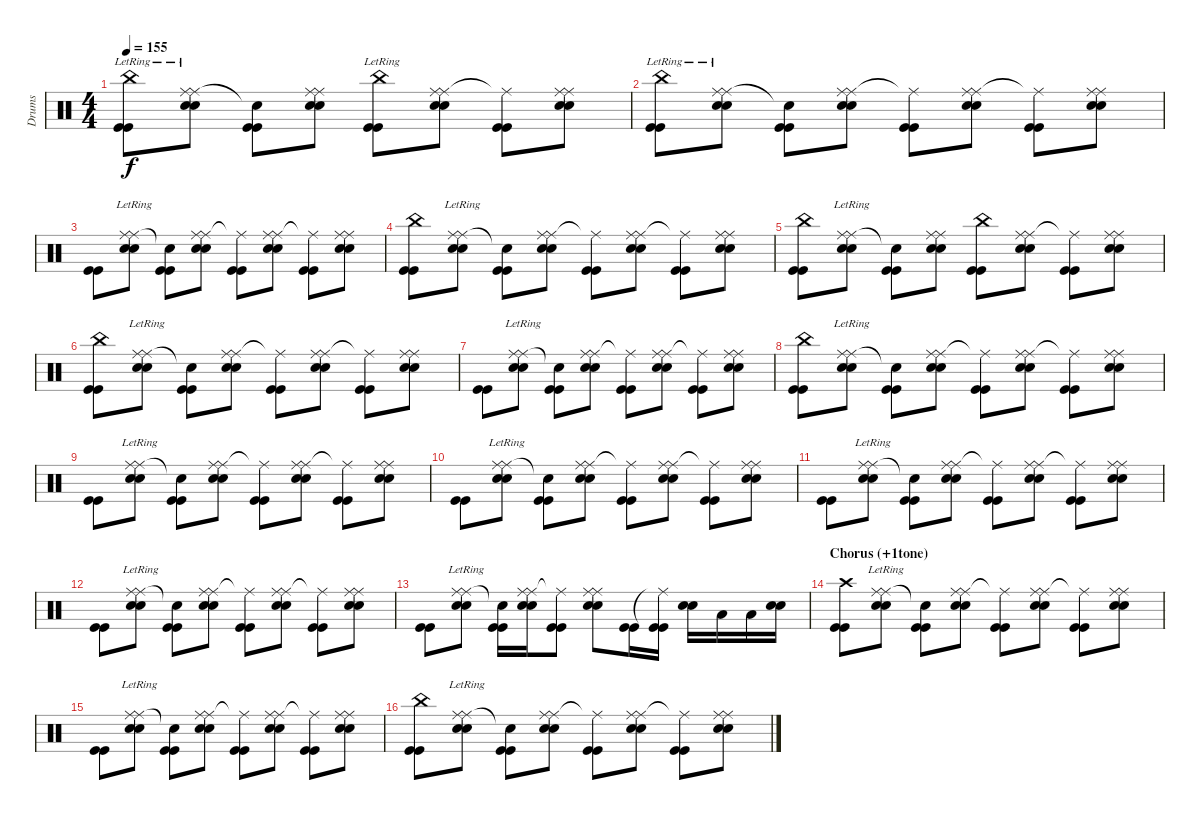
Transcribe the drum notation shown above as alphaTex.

\track ("Drums" "Drums") {instrument percussion}
\staff {score}
\articulation defaults
\ts (4 4)
\tempo 155
\clef neutral
\ks c
("China (hit)"{lr} "Kick (hit)" "Kick (hit)").8{dy f} ("Ride (middle)"{lr} "Snare (hit) 2" "Snare (hit) 2" "Ride (middle)").8 ("Snare (hit)"{t} "Kick (hit)" "Kick (hit)").8 ("Ride (middle)" "Snare (hit) 2" "Snare (hit) 2" "Ride (middle)").8 ("China (hit)"{lr} "Kick (hit)" "Kick (hit)").8 ("Ride (middle)" "Snare (hit) 2" "Snare (hit) 2" "Ride (middle)").8 ("Ride (middle)"{t} "Kick (hit)" "Kick (hit)").8 ("Ride (middle)" "Snare (hit) 2" "Snare (hit) 2" "Ride (middle)").8 |
("China (hit)"{lr} "Kick (hit)" "Kick (hit)").8 ("Ride (middle)"{lr} "Snare (hit) 2" "Snare (hit) 2" "Ride (middle)").8 ("Snare (hit)"{t} "Kick (hit)" "Kick (hit)").8 ("Ride (middle)" "Snare (hit) 2" "Snare (hit) 2" "Ride (middle)").8 ("Ride (middle)"{t} "Kick (hit)" "Kick (hit)").8 ("Ride (middle)" "Snare (hit) 2" "Snare (hit) 2" "Ride (middle)").8 ("Ride (middle)"{t} "Kick (hit)" "Kick (hit)").8 ("Ride (middle)" "Snare (hit) 2" "Snare (hit) 2" "Ride (middle)").8 |
("Kick (hit)" "Kick (hit)").8 ("Ride (middle)"{lr} "Snare (hit) 2" "Snare (hit) 2" "Ride (middle)").8 ("Snare (hit)"{t} "Kick (hit)" "Kick (hit)").8 ("Ride (middle)" "Snare (hit) 2" "Snare (hit) 2" "Ride (middle)").8 ("Ride (middle)"{t} "Kick (hit)" "Kick (hit)").8 ("Ride (middle)" "Snare (hit) 2" "Snare (hit) 2" "Ride (middle)").8 ("Ride (middle)"{t} "Kick (hit)" "Kick (hit)").8 ("Ride (middle)" "Snare (hit) 2" "Snare (hit) 2" "Ride (middle)").8 |
("China (hit)" "Kick (hit)" "Kick (hit)").8 ("Ride (middle)"{lr} "Snare (hit) 2" "Snare (hit) 2" "Ride (middle)").8 ("Snare (hit)"{t} "Kick (hit)" "Kick (hit)").8 ("Ride (middle)" "Snare (hit) 2" "Snare (hit) 2" "Ride (middle)").8 ("Ride (middle)"{t} "Kick (hit)" "Kick (hit)").8 ("Ride (middle)" "Snare (hit) 2" "Snare (hit) 2" "Ride (middle)").8 ("Ride (middle)"{t} "Kick (hit)" "Kick (hit)").8 ("Ride (middle)" "Snare (hit) 2" "Snare (hit) 2" "Ride (middle)").8 |
("China (hit)" "Kick (hit)" "Kick (hit)").8 ("Ride (middle)"{lr} "Snare (hit) 2" "Snare (hit) 2" "Ride (middle)").8 ("Snare (hit)"{t} "Kick (hit)" "Kick (hit)").8 ("Ride (middle)" "Snare (hit) 2" "Snare (hit) 2" "Ride (middle)").8 ("China (hit)" "Kick (hit)" "Kick (hit)").8 ("Ride (middle)" "Snare (hit) 2" "Snare (hit) 2" "Ride (middle)").8 ("Ride (middle)"{t} "Kick (hit)" "Kick (hit)").8 ("Ride (middle)" "Snare (hit) 2" "Snare (hit) 2" "Ride (middle)").8 |
("China (hit)" "Kick (hit)" "Kick (hit)").8 ("Ride (middle)"{lr} "Snare (hit) 2" "Snare (hit) 2" "Ride (middle)").8 ("Snare (hit)"{t} "Kick (hit)" "Kick (hit)").8 ("Ride (middle)" "Snare (hit) 2" "Snare (hit) 2" "Ride (middle)").8 ("Ride (middle)"{t} "Kick (hit)" "Kick (hit)").8 ("Ride (middle)" "Snare (hit) 2" "Snare (hit) 2" "Ride (middle)").8 ("Ride (middle)"{t} "Kick (hit)" "Kick (hit)").8 ("Ride (middle)" "Snare (hit) 2" "Snare (hit) 2" "Ride (middle)").8 |
("Kick (hit)" "Kick (hit)").8 ("Ride (middle)"{lr} "Snare (hit) 2" "Snare (hit) 2" "Ride (middle)").8 ("Snare (hit)"{t} "Kick (hit)" "Kick (hit)").8 ("Ride (middle)" "Snare (hit) 2" "Snare (hit) 2" "Ride (middle)").8 ("Ride (middle)"{t} "Kick (hit)" "Kick (hit)").8 ("Ride (middle)" "Snare (hit) 2" "Snare (hit) 2" "Ride (middle)").8 ("Ride (middle)"{t} "Kick (hit)" "Kick (hit)").8 ("Ride (middle)" "Snare (hit) 2" "Snare (hit) 2" "Ride (middle)").8 |
("China (hit)" "Kick (hit)" "Kick (hit)").8 ("Ride (middle)"{lr} "Snare (hit) 2" "Snare (hit) 2" "Ride (middle)").8 ("Snare (hit)"{t} "Kick (hit)" "Kick (hit)").8 ("Ride (middle)" "Snare (hit) 2" "Snare (hit) 2" "Ride (middle)").8 ("Ride (middle)"{t} "Kick (hit)" "Kick (hit)").8 ("Ride (middle)" "Snare (hit) 2" "Snare (hit) 2" "Ride (middle)").8 ("Ride (middle)"{t} "Kick (hit)" "Kick (hit)").8 ("Ride (middle)" "Snare (hit) 2" "Snare (hit) 2" "Ride (middle)").8 |
("Kick (hit)" "Kick (hit)").8 ("Ride (middle)"{lr} "Snare (hit) 2" "Snare (hit) 2" "Ride (middle)").8 ("Snare (hit)"{t} "Kick (hit)" "Kick (hit)").8 ("Ride (middle)" "Snare (hit) 2" "Snare (hit) 2" "Ride (middle)").8 ("Ride (middle)"{t} "Kick (hit)" "Kick (hit)").8 ("Ride (middle)" "Snare (hit) 2" "Snare (hit) 2" "Ride (middle)").8 ("Ride (middle)"{t} "Kick (hit)" "Kick (hit)").8 ("Ride (middle)" "Snare (hit) 2" "Snare (hit) 2" "Ride (middle)").8 |
("Kick (hit)" "Kick (hit)").8 ("Ride (middle)"{lr} "Snare (hit) 2" "Snare (hit) 2" "Ride (middle)").8 ("Snare (hit)"{t} "Kick (hit)" "Kick (hit)").8 ("Ride (middle)" "Snare (hit) 2" "Snare (hit) 2" "Ride (middle)").8 ("Ride (middle)"{t} "Kick (hit)" "Kick (hit)").8 ("Ride (middle)" "Snare (hit) 2" "Snare (hit) 2" "Ride (middle)").8 ("Ride (middle)"{t} "Kick (hit)" "Kick (hit)").8 ("Ride (middle)" "Snare (hit) 2" "Snare (hit) 2" "Ride (middle)").8 |
("Kick (hit)" "Kick (hit)").8 ("Ride (middle)"{lr} "Snare (hit) 2" "Snare (hit) 2" "Ride (middle)").8 ("Snare (hit)"{t} "Kick (hit)" "Kick (hit)").8 ("Ride (middle)" "Snare (hit) 2" "Snare (hit) 2" "Ride (middle)").8 ("Ride (middle)"{t} "Kick (hit)" "Kick (hit)").8 ("Ride (middle)" "Snare (hit) 2" "Snare (hit) 2" "Ride (middle)").8 ("Ride (middle)"{t} "Kick (hit)" "Kick (hit)").8 ("Ride (middle)" "Snare (hit) 2" "Snare (hit) 2" "Ride (middle)").8 |
("Kick (hit)" "Kick (hit)").8 ("Ride (middle)"{lr} "Snare (hit) 2" "Snare (hit) 2" "Ride (middle)").8 ("Snare (hit)"{t} "Kick (hit)" "Kick (hit)").8 ("Ride (middle)" "Snare (hit) 2" "Snare (hit) 2" "Ride (middle)").8 ("Ride (middle)"{t} "Kick (hit)" "Kick (hit)").8 ("Ride (middle)" "Snare (hit) 2" "Snare (hit) 2" "Ride (middle)").8 ("Ride (middle)"{t} "Kick (hit)" "Kick (hit)").8 ("Ride (middle)" "Snare (hit) 2" "Snare (hit) 2" "Ride (middle)").8 |
("Kick (hit)" "Kick (hit)").8 ("Ride (middle)"{lr} "Snare (hit) 2" "Snare (hit) 2" "Ride (middle)").8 ("Snare (hit)"{t} "Kick (hit)" "Kick (hit)").16 ("Ride (middle)" "Snare (hit) 2" "Snare (hit) 2" "Ride (middle)").16 ("Ride (middle)"{t} "Kick (hit)" "Kick (hit)").8 ("Ride (middle)" "Snare (hit) 2" "Snare (hit) 2" "Ride (middle)").8 ("Kick (hit)" "Kick (hit)").16 ("Ride (middle)"{t} "Kick (hit)" "Kick (hit)").16 ("Snare (hit) 2" "Snare (hit) 2").16 "Low Tom (hit)".16 "Low Tom (hit)".16 ("Snare (hit) 2" "Snare (hit) 2").16 |
\section ("" "Chorus (+1tone)")
("Crash high (hit)" "Kick (hit)" "Kick (hit)").8 ("Ride (middle)"{lr} "Snare (hit) 2" "Snare (hit) 2" "Ride (middle)").8 ("Snare (hit)"{t} "Kick (hit)" "Kick (hit)").8 ("Ride (middle)" "Snare (hit) 2" "Snare (hit) 2" "Ride (middle)").8 ("Ride (middle)"{t} "Kick (hit)" "Kick (hit)").8 ("Ride (middle)" "Snare (hit) 2" "Snare (hit) 2" "Ride (middle)").8 ("Ride (middle)"{t} "Kick (hit)" "Kick (hit)").8 ("Ride (middle)" "Snare (hit) 2" "Snare (hit) 2" "Ride (middle)").8 |
("Kick (hit)" "Kick (hit)").8 ("Ride (middle)"{lr} "Snare (hit) 2" "Snare (hit) 2" "Ride (middle)").8 ("Snare (hit)"{t} "Kick (hit)" "Kick (hit)").8 ("Ride (middle)" "Snare (hit) 2" "Snare (hit) 2" "Ride (middle)").8 ("Ride (middle)"{t} "Kick (hit)" "Kick (hit)").8 ("Ride (middle)" "Snare (hit) 2" "Snare (hit) 2" "Ride (middle)").8 ("Ride (middle)"{t} "Kick (hit)" "Kick (hit)").8 ("Ride (middle)" "Snare (hit) 2" "Snare (hit) 2" "Ride (middle)").8 |
("China (hit)" "Kick (hit)" "Kick (hit)").8 ("Ride (middle)"{lr} "Snare (hit) 2" "Snare (hit) 2" "Ride (middle)").8 ("Snare (hit)"{t} "Kick (hit)" "Kick (hit)").8 ("Ride (middle)" "Snare (hit) 2" "Snare (hit) 2" "Ride (middle)").8 ("Ride (middle)"{t} "Kick (hit)" "Kick (hit)").8 ("Ride (middle)" "Snare (hit) 2" "Snare (hit) 2" "Ride (middle)").8 ("Ride (middle)"{t} "Kick (hit)" "Kick (hit)").8 ("Ride (middle)" "Snare (hit) 2" "Snare (hit) 2" "Ride (middle)").8
